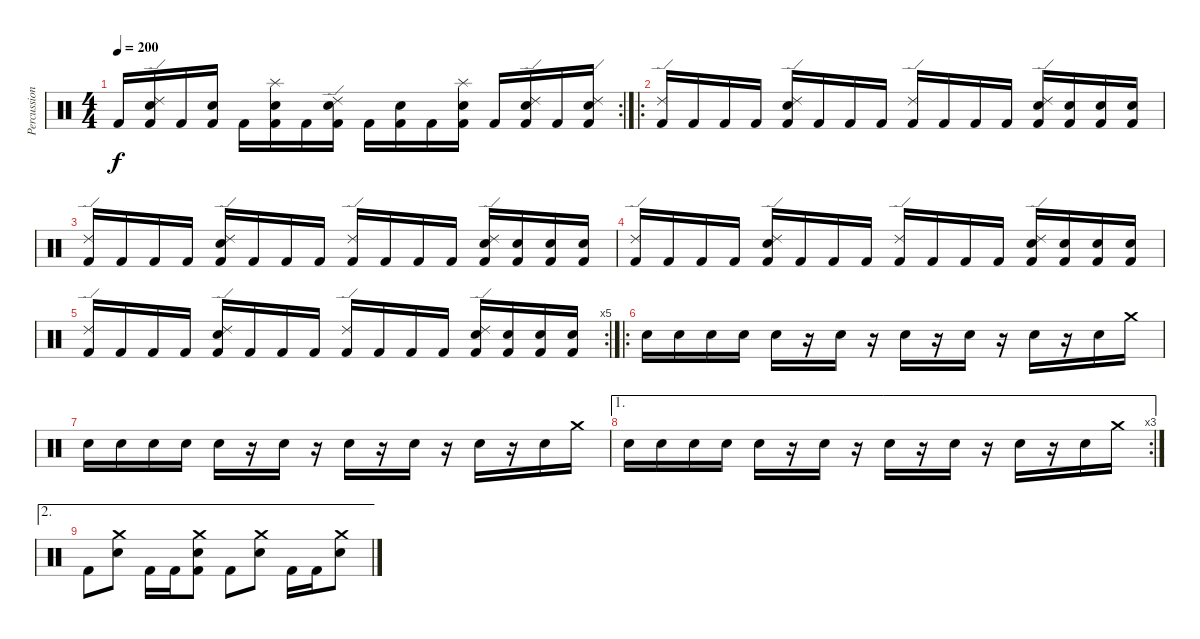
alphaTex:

\track ("Percussion" "Percussion") {instrument percussion}
\staff {score}
\articulation defaults
\rc 2
\ts (4 4)
\tempo 200
\clef neutral
\ks c "Kick (hit) 2".16{dy f}
("Ride (edge) 2" "Electric Snare (hit)" "Kick (hit) 2").16 "Kick (hit) 2".16 ("Electric Snare (hit)" "Kick (hit) 2").16 "Kick (hit) 2".16 ("Splash (hit)" "Electric Snare (hit)" "Kick (hit) 2").16 "Kick (hit) 2".16 ("Ride (edge) 2" "Electric Snare (hit)" "Kick (hit) 2").16 "Kick (hit) 2".16 ("Electric Snare (hit)" "Kick (hit) 2").16 "Kick (hit) 2".16 ("Splash (hit)" "Electric Snare (hit)" "Kick (hit) 2").16 "Kick (hit) 2".16 ("Ride (edge) 2" "Electric Snare (hit)" "Kick (hit) 2").16 "Kick (hit) 2".16 ("Ride (edge) 2" "Electric Snare (hit)" "Kick (hit) 2").16 |
\ro
("Ride (edge) 2" "Kick (hit) 2").16 "Kick (hit) 2".16 "Kick (hit) 2".16 "Kick (hit) 2".16 ("Ride (edge) 2" "Electric Snare (hit)" "Kick (hit) 2").16 "Kick (hit) 2".16 "Kick (hit) 2".16 "Kick (hit) 2".16 ("Ride (edge) 2" "Kick (hit) 2").16 "Kick (hit) 2".16 "Kick (hit) 2".16 "Kick (hit) 2".16 ("Ride (edge) 2" "Electric Snare (hit)" "Kick (hit) 2").16 ("Electric Snare (hit)" "Kick (hit) 2").16 ("Electric Snare (hit)" "Kick (hit) 2").16 ("Electric Snare (hit)" "Kick (hit) 2").16 |
("Ride (edge) 2" "Kick (hit) 2").16 "Kick (hit) 2".16 "Kick (hit) 2".16 "Kick (hit) 2".16 ("Ride (edge) 2" "Electric Snare (hit)" "Kick (hit) 2").16 "Kick (hit) 2".16 "Kick (hit) 2".16 "Kick (hit) 2".16 ("Ride (edge) 2" "Kick (hit) 2").16 "Kick (hit) 2".16 "Kick (hit) 2".16 "Kick (hit) 2".16 ("Ride (edge) 2" "Electric Snare (hit)" "Kick (hit) 2").16 ("Electric Snare (hit)" "Kick (hit) 2").16 ("Electric Snare (hit)" "Kick (hit) 2").16 ("Electric Snare (hit)" "Kick (hit) 2").16 |
("Ride (edge) 2" "Kick (hit) 2").16 "Kick (hit) 2".16 "Kick (hit) 2".16 "Kick (hit) 2".16 ("Ride (edge) 2" "Electric Snare (hit)" "Kick (hit) 2").16 "Kick (hit) 2".16 "Kick (hit) 2".16 "Kick (hit) 2".16 ("Ride (edge) 2" "Kick (hit) 2").16 "Kick (hit) 2".16 "Kick (hit) 2".16 "Kick (hit) 2".16 ("Ride (edge) 2" "Electric Snare (hit)" "Kick (hit) 2").16 ("Electric Snare (hit)" "Kick (hit) 2").16 ("Electric Snare (hit)" "Kick (hit) 2").16 ("Electric Snare (hit)" "Kick (hit) 2").16 |
\rc 5
("Ride (edge) 2" "Kick (hit) 2").16 "Kick (hit) 2".16 "Kick (hit) 2".16 "Kick (hit) 2".16 ("Ride (edge) 2" "Electric Snare (hit)" "Kick (hit) 2").16 "Kick (hit) 2".16 "Kick (hit) 2".16 "Kick (hit) 2".16 ("Ride (edge) 2" "Kick (hit) 2").16 "Kick (hit) 2".16 "Kick (hit) 2".16 "Kick (hit) 2".16 ("Ride (edge) 2" "Electric Snare (hit)" "Kick (hit) 2").16 ("Electric Snare (hit)" "Kick (hit) 2").16 ("Electric Snare (hit)" "Kick (hit) 2").16 ("Electric Snare (hit)" "Kick (hit) 2").16 |
\ro "Electric Snare (hit)".16 "Electric Snare (hit)".16 "Electric Snare (hit)".16 "Electric Snare (hit)".16 "Electric Snare (hit)".16
r.16 "Electric Snare (hit)".16 r.16 "Electric Snare (hit)".16 r.16 "Electric Snare (hit)".16 r.16 "Electric Snare (hit)".16 r.16 "Electric Snare (hit)".16 "Crash medium (hit)".16 |
"Electric Snare (hit)".16 "Electric Snare (hit)".16 "Electric Snare (hit)".16 "Electric Snare (hit)".16 "Electric Snare (hit)".16 r.16 "Electric Snare (hit)".16 r.16 "Electric Snare (hit)".16 r.16 "Electric Snare (hit)".16 r.16 "Electric Snare (hit)".16 r.16 "Electric Snare (hit)".16 "Crash medium (hit)".16 |
\ae 1
\rc 3 "Electric Snare (hit)".16 "Electric Snare (hit)".16 "Electric Snare (hit)".16 "Electric Snare (hit)".16 "Electric Snare (hit)".16
r.16 "Electric Snare (hit)".16 r.16 "Electric Snare (hit)".16 r.16 "Electric Snare (hit)".16 r.16 "Electric Snare (hit)".16 r.16 "Electric Snare (hit)".16 "Crash medium (hit)".16 |
\ae 2 "Kick (hit) 2".8
("Crash medium (hit)" "Electric Snare (hit)").8 "Kick (hit) 2".16 "Kick (hit) 2".16 ("Crash medium (hit)" "Electric Snare (hit)" "Kick (hit) 2").8 "Kick (hit) 2".8 ("Crash medium (hit)" "Electric Snare (hit)").8 "Kick (hit) 2".16 "Kick (hit) 2".16 ("Crash medium (hit)" "Electric Snare (hit)").8
